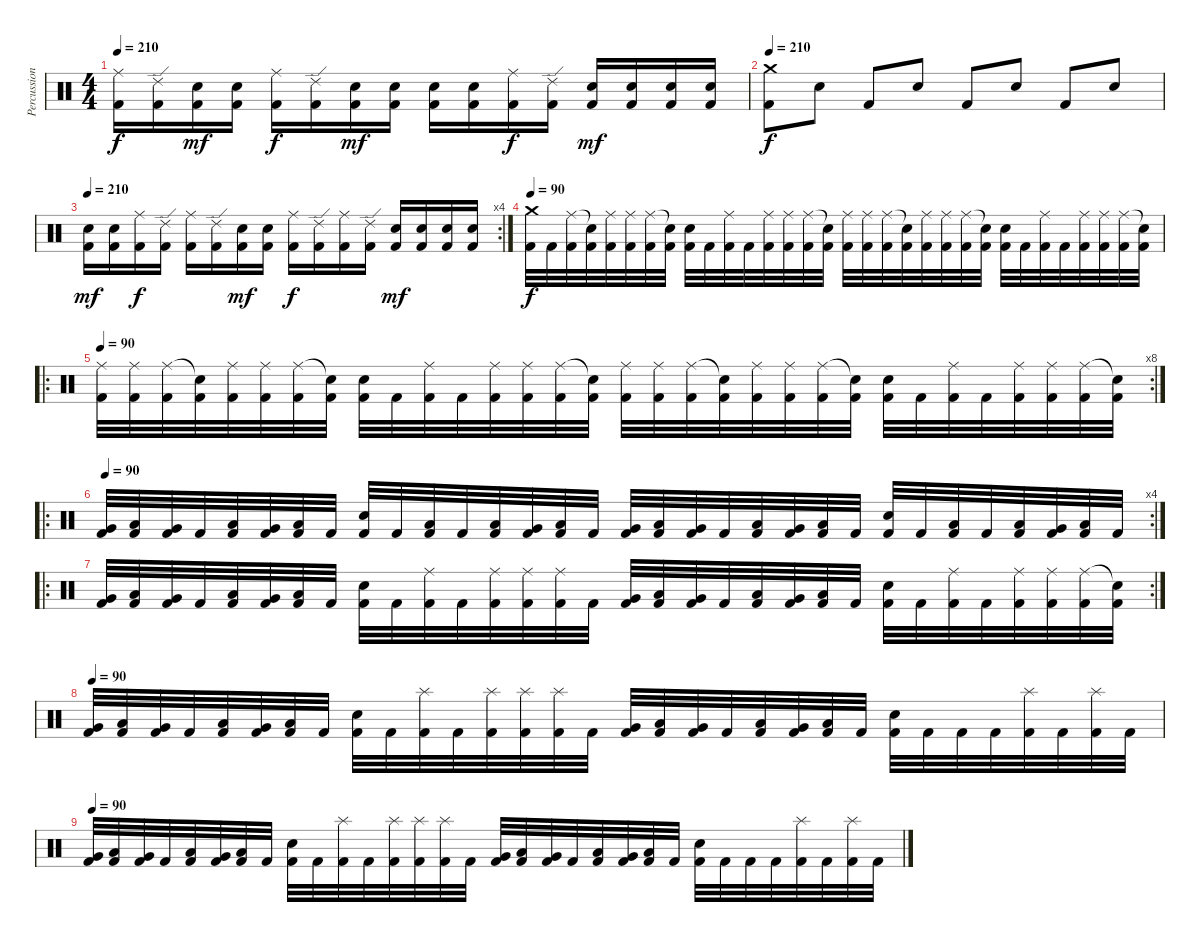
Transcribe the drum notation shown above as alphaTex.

\track ("Percussion" "Percussion") {instrument percussion}
\staff {score}
\articulation defaults
\ts (4 4)
\tempo 210
\clef neutral
\ks c
("Ride (middle)" "Kick (hit) 2").16{dy f} ("Ride (edge) 2" "Kick (hit) 2").16 ("Snare (hit) 2" "Kick (hit) 2").16{dy mf} ("Snare (hit) 2" "Kick (hit) 2").16 ("Ride (middle)" "Kick (hit) 2").16{dy f} ("Ride (edge) 2" "Kick (hit) 2").16 ("Snare (hit) 2" "Kick (hit) 2").16{dy mf} ("Snare (hit) 2" "Kick (hit) 2").16 ("Snare (hit) 2" "Kick (hit) 2").16 ("Snare (hit) 2" "Kick (hit) 2").16 ("Ride (middle)" "Kick (hit) 2").16{dy f} ("Ride (edge) 2" "Kick (hit) 2").16 ("Snare (hit) 2" "Kick (hit) 2").16{dy mf} ("Snare (hit) 2" "Kick (hit) 2").16 ("Snare (hit) 2" "Kick (hit) 2").16 ("Snare (hit) 2" "Kick (hit) 2").16 |
\tempo 210
("Crash medium (hit)" "Kick (hit) 2").8{dy f} "Snare (hit) 2".8 "Kick (hit) 2".8 "Snare (hit) 2".8 "Kick (hit) 2".8 "Snare (hit) 2".8 "Kick (hit) 2".8 "Snare (hit) 2".8 |
\rc 4
\tempo 210
("Snare (hit) 2" "Kick (hit) 2").16{dy mf} ("Snare (hit) 2" "Kick (hit) 2").16 ("Ride (middle)" "Kick (hit) 2").16{dy f} ("Ride (edge) 2" "Kick (hit) 2").16 ("Ride (middle)" "Kick (hit) 2").16 ("Ride (edge) 2" "Kick (hit) 2").16 ("Snare (hit) 2" "Kick (hit) 2").16{dy mf} ("Snare (hit) 2" "Kick (hit) 2").16 ("Ride (middle)" "Kick (hit) 2").16{dy f} ("Ride (edge) 2" "Kick (hit) 2").16 ("Ride (middle)" "Kick (hit) 2").16 ("Ride (edge) 2" "Kick (hit) 2").16 ("Snare (hit) 2" "Kick (hit) 2").16{dy mf} ("Snare (hit) 2" "Kick (hit) 2").16 ("Snare (hit) 2" "Kick (hit) 2").16 ("Snare (hit) 2" "Kick (hit) 2").16 |
\tempo 90
("Crash medium (hit)" "Kick (hit) 2").32{dy f} "Kick (hit) 2".32 ("Ride (middle)" "Kick (hit) 2").32 ("Snare (hit)"{t} "Kick (hit) 2").32 ("Ride (middle)" "Kick (hit) 2").32 ("Ride (middle)" "Kick (hit) 2").32 ("Ride (middle)" "Kick (hit) 2").32 ("Snare (hit)"{t} "Kick (hit) 2").32 ("Snare (hit) 2" "Kick (hit) 2").32 "Kick (hit) 2".32 ("Ride (middle)" "Kick (hit) 2").32 "Kick (hit) 2".32 ("Ride (middle)" "Kick (hit) 2").32 ("Ride (middle)" "Kick (hit) 2").32 ("Ride (middle)" "Kick (hit) 2").32 ("Snare (hit)"{t} "Kick (hit) 2").32 ("Ride (middle)" "Kick (hit) 2").32 ("Ride (middle)" "Kick (hit) 2").32 ("Ride (middle)" "Kick (hit) 2").32 ("Snare (hit)"{t} "Kick (hit) 2").32 ("Ride (middle)" "Kick (hit) 2").32 ("Ride (middle)" "Kick (hit) 2").32 ("Ride (middle)" "Kick (hit) 2").32 ("Snare (hit)"{t} "Kick (hit) 2").32 ("Snare (hit) 2" "Kick (hit) 2").32 "Kick (hit) 2".32 ("Ride (middle)" "Kick (hit) 2").32 "Kick (hit) 2".32 ("Ride (middle)" "Kick (hit) 2").32 ("Ride (middle)" "Kick (hit) 2").32 ("Ride (middle)" "Kick (hit) 2").32 ("Snare (hit)"{t} "Kick (hit) 2").32 |
\ro
\rc 8
\tempo 90
("Ride (middle)" "Kick (hit) 2").32 ("Ride (middle)" "Kick (hit) 2").32 ("Ride (middle)" "Kick (hit) 2").32 ("Snare (hit)"{t} "Kick (hit) 2").32 ("Ride (middle)" "Kick (hit) 2").32 ("Ride (middle)" "Kick (hit) 2").32 ("Ride (middle)" "Kick (hit) 2").32 ("Snare (hit)"{t} "Kick (hit) 2").32 ("Snare (hit) 2" "Kick (hit) 2").32 "Kick (hit) 2".32 ("Ride (middle)" "Kick (hit) 2").32 "Kick (hit) 2".32 ("Ride (middle)" "Kick (hit) 2").32 ("Ride (middle)" "Kick (hit) 2").32 ("Ride (middle)" "Kick (hit) 2").32 ("Snare (hit)"{t} "Kick (hit) 2").32 ("Ride (middle)" "Kick (hit) 2").32 ("Ride (middle)" "Kick (hit) 2").32 ("Ride (middle)" "Kick (hit) 2").32 ("Snare (hit)"{t} "Kick (hit) 2").32 ("Ride (middle)" "Kick (hit) 2").32 ("Ride (middle)" "Kick (hit) 2").32 ("Ride (middle)" "Kick (hit) 2").32 ("Snare (hit)"{t} "Kick (hit) 2").32 ("Snare (hit) 2" "Kick (hit) 2").32 "Kick (hit) 2".32 ("Ride (middle)" "Kick (hit) 2").32 "Kick (hit) 2".32 ("Ride (middle)" "Kick (hit) 2").32 ("Ride (middle)" "Kick (hit) 2").32 ("Ride (middle)" "Kick (hit) 2").32 ("Snare (hit)"{t} "Kick (hit) 2").32 |
\ro
\rc 4
\tempo 90
("Very Low Tom (hit)" "Kick (hit) 2").32 ("Low Tom (hit)" "Kick (hit) 2").32 ("Very Low Tom (hit)" "Kick (hit) 2").32 "Kick (hit) 2".32 ("Low Floor Tom (hit)" "Kick (hit) 2").32 ("Very Low Tom (hit)" "Kick (hit) 2").32 ("Low Floor Tom (hit)" "Kick (hit) 2").32 "Kick (hit) 2".32 ("Snare (hit) 2" "Kick (hit) 2").32 "Kick (hit) 2".32 ("Low Floor Tom (hit)" "Kick (hit) 2").32 "Kick (hit) 2".32 ("Low Floor Tom (hit)" "Kick (hit) 2").32 ("Very Low Tom (hit)" "Kick (hit) 2").32 ("Low Floor Tom (hit)" "Kick (hit) 2").32 "Kick (hit) 2".32 ("Very Low Tom (hit)" "Kick (hit) 2").32 ("Low Tom (hit)" "Kick (hit) 2").32 ("Very Low Tom (hit)" "Kick (hit) 2").32 "Kick (hit) 2".32 ("Low Floor Tom (hit)" "Kick (hit) 2").32 ("Very Low Tom (hit)" "Kick (hit) 2").32 ("Low Floor Tom (hit)" "Kick (hit) 2").32 "Kick (hit) 2".32 ("Snare (hit) 2" "Kick (hit) 2").32 "Kick (hit) 2".32 ("Low Floor Tom (hit)" "Kick (hit) 2").32 "Kick (hit) 2".32 ("Low Floor Tom (hit)" "Kick (hit) 2").32 ("Very Low Tom (hit)" "Kick (hit) 2").32 ("Low Floor Tom (hit)" "Kick (hit) 2").32 "Kick (hit) 2".32 |
\ro
\rc 2
("Very Low Tom (hit)" "Kick (hit) 2").32 ("Low Tom (hit)" "Kick (hit) 2").32 ("Very Low Tom (hit)" "Kick (hit) 2").32 "Kick (hit) 2".32 ("Low Floor Tom (hit)" "Kick (hit) 2").32 ("Very Low Tom (hit)" "Kick (hit) 2").32 ("Low Floor Tom (hit)" "Kick (hit) 2").32 "Kick (hit) 2".32 ("Snare (hit) 2" "Kick (hit) 2").32 "Kick (hit) 2".32 ("Ride (middle)" "Kick (hit) 2").32 "Kick (hit) 2".32 ("Ride (middle)" "Kick (hit) 2").32 ("Ride (middle)" "Kick (hit) 2").32 ("Ride (middle)" "Kick (hit) 2").32 "Kick (hit) 2".32 ("Very Low Tom (hit)" "Kick (hit) 2").32 ("Low Tom (hit)" "Kick (hit) 2").32 ("Very Low Tom (hit)" "Kick (hit) 2").32 "Kick (hit) 2".32 ("Low Floor Tom (hit)" "Kick (hit) 2").32 ("Very Low Tom (hit)" "Kick (hit) 2").32 ("Low Floor Tom (hit)" "Kick (hit) 2").32 "Kick (hit) 2".32 ("Snare (hit) 2" "Kick (hit) 2").32 "Kick (hit) 2".32 ("Ride (middle)" "Kick (hit) 2").32 "Kick (hit) 2".32 ("Ride (middle)" "Kick (hit) 2").32 ("Ride (middle)" "Kick (hit) 2").32 ("Ride (middle)" "Kick (hit) 2").32 ("Snare (hit)"{t} "Kick (hit) 2").32 |
\tempo 90
("Very Low Tom (hit)" "Kick (hit) 2").32{volume 12} ("Low Tom (hit)" "Kick (hit) 2").32 ("Very Low Tom (hit)" "Kick (hit) 2").32 "Kick (hit) 2".32 ("Low Floor Tom (hit)" "Kick (hit) 2").32 ("Very Low Tom (hit)" "Kick (hit) 2").32 ("Low Floor Tom (hit)" "Kick (hit) 2").32 "Kick (hit) 2".32 ("Snare (hit) 2" "Kick (hit) 2").32 "Kick (hit) 2".32 ("Splash (hit)" "Kick (hit) 2").32 "Kick (hit) 2".32 ("Splash (hit)" "Kick (hit) 2").32 ("Splash (hit)" "Kick (hit) 2").32 ("Splash (hit)" "Kick (hit) 2").32 "Kick (hit) 2".32 ("Very Low Tom (hit)" "Kick (hit) 2").32{volume 10} ("Low Tom (hit)" "Kick (hit) 2").32 ("Very Low Tom (hit)" "Kick (hit) 2").32 "Kick (hit) 2".32 ("Low Floor Tom (hit)" "Kick (hit) 2").32 ("Very Low Tom (hit)" "Kick (hit) 2").32 ("Low Floor Tom (hit)" "Kick (hit) 2").32 "Kick (hit) 2".32 ("Snare (hit) 2" "Kick (hit) 2").32 "Kick (hit) 2".32 "Kick (hit) 2".32 "Kick (hit) 2".32 ("Splash (hit)" "Kick (hit) 2").32 "Kick (hit) 2".32 ("Splash (hit)" "Kick (hit) 2").32 "Kick (hit) 2".32 |
\tempo 90
("Very Low Tom (hit)" "Kick (hit) 2").32{volume 8} ("Low Tom (hit)" "Kick (hit) 2").32 ("Very Low Tom (hit)" "Kick (hit) 2").32 "Kick (hit) 2".32 ("Low Floor Tom (hit)" "Kick (hit) 2").32 ("Very Low Tom (hit)" "Kick (hit) 2").32 ("Low Floor Tom (hit)" "Kick (hit) 2").32 "Kick (hit) 2".32 ("Snare (hit) 2" "Kick (hit) 2").32 "Kick (hit) 2".32 ("Splash (hit)" "Kick (hit) 2").32 "Kick (hit) 2".32 ("Splash (hit)" "Kick (hit) 2").32 ("Splash (hit)" "Kick (hit) 2").32 ("Splash (hit)" "Kick (hit) 2").32 "Kick (hit) 2".32 ("Very Low Tom (hit)" "Kick (hit) 2").32{volume 6} ("Low Tom (hit)" "Kick (hit) 2").32 ("Very Low Tom (hit)" "Kick (hit) 2").32 "Kick (hit) 2".32 ("Low Floor Tom (hit)" "Kick (hit) 2").32 ("Very Low Tom (hit)" "Kick (hit) 2").32 ("Low Floor Tom (hit)" "Kick (hit) 2").32 "Kick (hit) 2".32 ("Snare (hit) 2" "Kick (hit) 2").32{volume 5} "Kick (hit) 2".32 "Kick (hit) 2".32 "Kick (hit) 2".32 ("Splash (hit)" "Kick (hit) 2").32{volume 3} "Kick (hit) 2".32 ("Splash (hit)" "Kick (hit) 2").32{volume 1} "Kick (hit) 2".32
